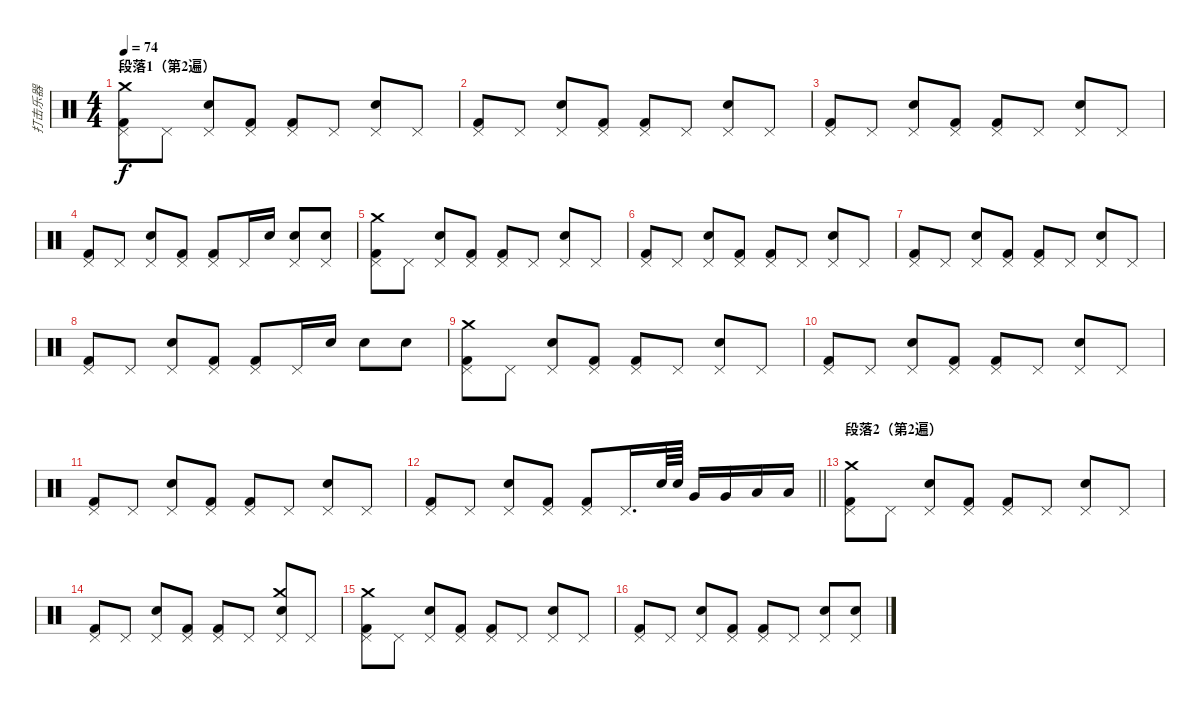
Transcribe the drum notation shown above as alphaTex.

\track ("打击乐器" "打击乐器") {instrument percussion}
\staff {score}
\articulation defaults
\ts (4 4)
\section ("" "段落1（第2遍）")
\tempo 74
\clef neutral
\ks c
("Pedal Hi-Hat (hit)" "Kick (hit) 2" "Crash medium (hit)").8{dy f} "Pedal Hi-Hat (hit)".8 ("Pedal Hi-Hat (hit)" "Electric Snare (hit)").8 ("Pedal Hi-Hat (hit)" "Kick (hit) 2").8 ("Pedal Hi-Hat (hit)" "Kick (hit) 2").8 "Pedal Hi-Hat (hit)".8 ("Pedal Hi-Hat (hit)" "Electric Snare (hit)").8 "Pedal Hi-Hat (hit)".8 |
("Pedal Hi-Hat (hit)" "Kick (hit) 2").8 "Pedal Hi-Hat (hit)".8 ("Pedal Hi-Hat (hit)" "Electric Snare (hit)").8 ("Pedal Hi-Hat (hit)" "Kick (hit) 2").8 ("Pedal Hi-Hat (hit)" "Kick (hit) 2").8 "Pedal Hi-Hat (hit)".8 ("Pedal Hi-Hat (hit)" "Electric Snare (hit)").8 "Pedal Hi-Hat (hit)".8 |
("Pedal Hi-Hat (hit)" "Kick (hit) 2").8 "Pedal Hi-Hat (hit)".8 ("Pedal Hi-Hat (hit)" "Electric Snare (hit)").8 ("Pedal Hi-Hat (hit)" "Kick (hit) 2").8 ("Pedal Hi-Hat (hit)" "Kick (hit) 2").8 "Pedal Hi-Hat (hit)".8 ("Pedal Hi-Hat (hit)" "Electric Snare (hit)").8 "Pedal Hi-Hat (hit)".8 |
("Pedal Hi-Hat (hit)" "Kick (hit) 2").8 "Pedal Hi-Hat (hit)".8 ("Pedal Hi-Hat (hit)" "Electric Snare (hit)").8 ("Pedal Hi-Hat (hit)" "Kick (hit) 2").8 ("Pedal Hi-Hat (hit)" "Kick (hit) 2").8 "Pedal Hi-Hat (hit)".16 "Electric Snare (hit)".16 ("Pedal Hi-Hat (hit)" "Electric Snare (hit)").8 ("Pedal Hi-Hat (hit)" "Electric Snare (hit)").8 |
("Pedal Hi-Hat (hit)" "Kick (hit) 2" "Crash medium (hit)").8 "Pedal Hi-Hat (hit)".8 ("Pedal Hi-Hat (hit)" "Electric Snare (hit)").8 ("Pedal Hi-Hat (hit)" "Kick (hit) 2").8 ("Pedal Hi-Hat (hit)" "Kick (hit) 2").8 "Pedal Hi-Hat (hit)".8 ("Pedal Hi-Hat (hit)" "Electric Snare (hit)").8 "Pedal Hi-Hat (hit)".8 |
("Pedal Hi-Hat (hit)" "Kick (hit) 2").8 "Pedal Hi-Hat (hit)".8 ("Pedal Hi-Hat (hit)" "Electric Snare (hit)").8 ("Pedal Hi-Hat (hit)" "Kick (hit) 2").8 ("Pedal Hi-Hat (hit)" "Kick (hit) 2").8 "Pedal Hi-Hat (hit)".8 ("Pedal Hi-Hat (hit)" "Electric Snare (hit)").8 "Pedal Hi-Hat (hit)".8 |
("Pedal Hi-Hat (hit)" "Kick (hit) 2").8 "Pedal Hi-Hat (hit)".8 ("Pedal Hi-Hat (hit)" "Electric Snare (hit)").8 ("Pedal Hi-Hat (hit)" "Kick (hit) 2").8 ("Pedal Hi-Hat (hit)" "Kick (hit) 2").8 "Pedal Hi-Hat (hit)".8 ("Pedal Hi-Hat (hit)" "Electric Snare (hit)").8 "Pedal Hi-Hat (hit)".8 |
("Pedal Hi-Hat (hit)" "Kick (hit) 2").8 "Pedal Hi-Hat (hit)".8 ("Pedal Hi-Hat (hit)" "Electric Snare (hit)").8 ("Pedal Hi-Hat (hit)" "Kick (hit) 2").8 ("Pedal Hi-Hat (hit)" "Kick (hit) 2").8 "Pedal Hi-Hat (hit)".16 "Electric Snare (hit)".16 "Electric Snare (hit)".8 "Electric Snare (hit)".8 |
("Pedal Hi-Hat (hit)" "Kick (hit) 2" "Crash medium (hit)").8 "Pedal Hi-Hat (hit)".8 ("Pedal Hi-Hat (hit)" "Electric Snare (hit)").8 ("Pedal Hi-Hat (hit)" "Kick (hit) 2").8 ("Pedal Hi-Hat (hit)" "Kick (hit) 2").8 "Pedal Hi-Hat (hit)".8 ("Pedal Hi-Hat (hit)" "Electric Snare (hit)").8 "Pedal Hi-Hat (hit)".8 |
("Pedal Hi-Hat (hit)" "Kick (hit) 2").8 "Pedal Hi-Hat (hit)".8 ("Pedal Hi-Hat (hit)" "Electric Snare (hit)").8 ("Pedal Hi-Hat (hit)" "Kick (hit) 2").8 ("Pedal Hi-Hat (hit)" "Kick (hit) 2").8 "Pedal Hi-Hat (hit)".8 ("Pedal Hi-Hat (hit)" "Electric Snare (hit)").8 "Pedal Hi-Hat (hit)".8 |
("Pedal Hi-Hat (hit)" "Kick (hit) 2").8 "Pedal Hi-Hat (hit)".8 ("Pedal Hi-Hat (hit)" "Electric Snare (hit)").8 ("Pedal Hi-Hat (hit)" "Kick (hit) 2").8 ("Pedal Hi-Hat (hit)" "Kick (hit) 2").8 "Pedal Hi-Hat (hit)".8 ("Pedal Hi-Hat (hit)" "Electric Snare (hit)").8 "Pedal Hi-Hat (hit)".8 |
\barLineRight lightlight
("Pedal Hi-Hat (hit)" "Kick (hit) 2").8 "Pedal Hi-Hat (hit)".8 ("Pedal Hi-Hat (hit)" "Electric Snare (hit)").8 ("Pedal Hi-Hat (hit)" "Kick (hit) 2").8 ("Pedal Hi-Hat (hit)" "Kick (hit) 2").8 "Pedal Hi-Hat (hit)".16{d} "Electric Snare (hit)".64 "Electric Snare (hit)".64 "Very Low Tom (hit)".16 "Very Low Tom (hit)".16 "Low Tom (hit)".16 "Low Tom (hit)".16 |
\section ("" "段落2（第2遍）")
("Pedal Hi-Hat (hit)" "Kick (hit) 2" "Crash medium (hit)").8 "Pedal Hi-Hat (hit)".8 ("Pedal Hi-Hat (hit)" "Electric Snare (hit)").8 ("Pedal Hi-Hat (hit)" "Kick (hit) 2").8 ("Pedal Hi-Hat (hit)" "Kick (hit) 2").8 "Pedal Hi-Hat (hit)".8 ("Pedal Hi-Hat (hit)" "Electric Snare (hit)").8 "Pedal Hi-Hat (hit)".8 |
("Pedal Hi-Hat (hit)" "Kick (hit) 2").8 "Pedal Hi-Hat (hit)".8 ("Pedal Hi-Hat (hit)" "Electric Snare (hit)").8 ("Pedal Hi-Hat (hit)" "Kick (hit) 2").8 ("Pedal Hi-Hat (hit)" "Kick (hit) 2").8 "Pedal Hi-Hat (hit)".8 ("Pedal Hi-Hat (hit)" "Electric Snare (hit)" "Crash medium (hit)").8 "Pedal Hi-Hat (hit)".8 |
("Pedal Hi-Hat (hit)" "Kick (hit) 2" "Crash medium (hit)").8 "Pedal Hi-Hat (hit)".8 ("Pedal Hi-Hat (hit)" "Electric Snare (hit)").8 ("Pedal Hi-Hat (hit)" "Kick (hit) 2").8 ("Pedal Hi-Hat (hit)" "Kick (hit) 2").8 "Pedal Hi-Hat (hit)".8 ("Pedal Hi-Hat (hit)" "Electric Snare (hit)").8 "Pedal Hi-Hat (hit)".8 |
("Pedal Hi-Hat (hit)" "Kick (hit) 2").8 "Pedal Hi-Hat (hit)".8 ("Pedal Hi-Hat (hit)" "Electric Snare (hit)").8 ("Pedal Hi-Hat (hit)" "Kick (hit) 2").8 ("Pedal Hi-Hat (hit)" "Kick (hit) 2").8 "Pedal Hi-Hat (hit)".8 ("Pedal Hi-Hat (hit)" "Electric Snare (hit)").8 ("Pedal Hi-Hat (hit)" "Electric Snare (hit)").8
